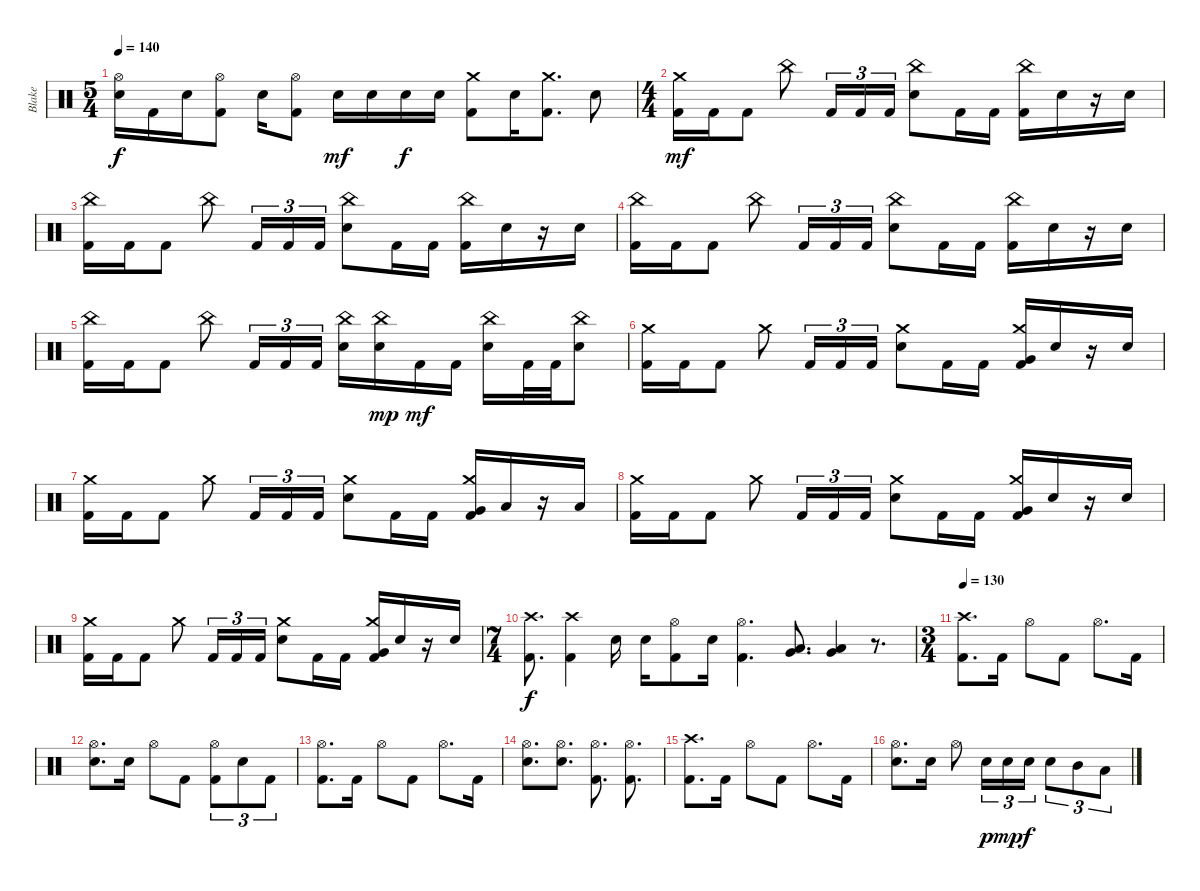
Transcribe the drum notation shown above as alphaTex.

\track ("Blake" "Blake") {instrument percussion}
\staff {score}
\articulation defaults
\ts (5 4)
\tempo 140
\clef neutral
\ks c
("Hi-Hat (open)" "Snare (hit) 2").16{dy f} "Kick (hit) 2".16 "Snare (hit) 2".16 ("Hi-Hat (open)" "Kick (hit) 2").8 "Snare (hit) 2".16 ("Hi-Hat (open)" "Kick (hit) 2").8 "Snare (hit) 2".16{dy mf} "Snare (hit) 2".16 "Snare (hit) 2".16{dy f} "Snare (hit) 2".16 ("Crash medium (hit)" "Kick (hit) 2").8 "Snare (hit) 2".16 ("Crash medium (hit)" "Kick (hit) 2").8{d} "Snare (hit) 2".8 |
\ts (4 4)
("Crash medium (hit)" "Kick (hit) 2").16{dy mf} "Kick (hit) 2".16 "Kick (hit) 2".8 "China (hit)".8 "Kick (hit) 2".16{tu (3 2)} "Kick (hit) 2".16{tu (3 2)} "Kick (hit) 2".16{tu (3 2)} ("China (hit)" "Snare (hit) 2").8 "Kick (hit) 2".16 "Kick (hit) 2".16 ("China (hit)" "Kick (hit) 2").16 "Snare (hit) 2".16 r.16 "Snare (hit) 2".16 |
("China (hit)" "Kick (hit) 2").16 "Kick (hit) 2".16 "Kick (hit) 2".8 "China (hit)".8 "Kick (hit) 2".16{tu (3 2)} "Kick (hit) 2".16{tu (3 2)} "Kick (hit) 2".16{tu (3 2)} ("China (hit)" "Snare (hit) 2").8 "Kick (hit) 2".16 "Kick (hit) 2".16 ("China (hit)" "Kick (hit) 2").16 "Snare (hit) 2".16 r.16 "Snare (hit) 2".16 |
("China (hit)" "Kick (hit) 2").16 "Kick (hit) 2".16 "Kick (hit) 2".8 "China (hit)".8 "Kick (hit) 2".16{tu (3 2)} "Kick (hit) 2".16{tu (3 2)} "Kick (hit) 2".16{tu (3 2)} ("China (hit)" "Snare (hit) 2").8 "Kick (hit) 2".16 "Kick (hit) 2".16 ("China (hit)" "Kick (hit) 2").16 "Snare (hit) 2".16 r.16 "Snare (hit) 2".16 |
("China (hit)" "Kick (hit) 2").16 "Kick (hit) 2".16 "Kick (hit) 2".8 "China (hit)".8 "Kick (hit) 2".16{tu (3 2)} "Kick (hit) 2".16{tu (3 2)} "Kick (hit) 2".16{tu (3 2)} ("China (hit)" "Snare (hit) 2").16 ("China (hit)" "Snare (hit) 2").16{dy mp} "Kick (hit) 2".16{dy mf} "Kick (hit) 2".16 ("China (hit)" "Snare (hit) 2").16 "Kick (hit) 2".32 "Kick (hit) 2".32 ("China (hit)" "Snare (hit) 2").8 |
("Crash medium (hit)" "Kick (hit) 2").16 "Kick (hit) 2".16 "Kick (hit) 2".8 "Crash medium (hit)".8 "Kick (hit) 2".16{tu (3 2)} "Kick (hit) 2".16{tu (3 2)} "Kick (hit) 2".16{tu (3 2)} ("Crash medium (hit)" "Snare (hit) 2").8 "Kick (hit) 2".16 "Kick (hit) 2".16 ("Crash medium (hit)" "Very Low Tom (hit)" "Kick (hit) 2").16 "Snare (hit) 2".16 r.16 "Snare (hit) 2".16 |
("Crash medium (hit)" "Kick (hit) 2").16 "Kick (hit) 2".16 "Kick (hit) 2".8 "Crash medium (hit)".8 "Kick (hit) 2".16{tu (3 2)} "Kick (hit) 2".16{tu (3 2)} "Kick (hit) 2".16{tu (3 2)} ("Crash medium (hit)" "Snare (hit) 2").8 "Kick (hit) 2".16 "Kick (hit) 2".16 ("Crash medium (hit)" "Very Low Tom (hit)" "Kick (hit) 2").16 "Low Tom (hit)".16 r.16 "Low Tom (hit)".16 |
("Crash medium (hit)" "Kick (hit) 2").16 "Kick (hit) 2".16 "Kick (hit) 2".8 "Crash medium (hit)".8 "Kick (hit) 2".16{tu (3 2)} "Kick (hit) 2".16{tu (3 2)} "Kick (hit) 2".16{tu (3 2)} ("Crash medium (hit)" "Snare (hit) 2").8 "Kick (hit) 2".16 "Kick (hit) 2".16 ("Crash medium (hit)" "Very Low Tom (hit)" "Kick (hit) 2").16 "Snare (hit) 2".16 r.16 "Snare (hit) 2".16 |
("Crash medium (hit)" "Kick (hit) 2").16 "Kick (hit) 2".16 "Kick (hit) 2".8 "Crash medium (hit)".8 "Kick (hit) 2".16{tu (3 2)} "Kick (hit) 2".16{tu (3 2)} "Kick (hit) 2".16{tu (3 2)} ("Crash medium (hit)" "Snare (hit) 2").8 "Kick (hit) 2".16 "Kick (hit) 2".16 ("Crash medium (hit)" "Very Low Tom (hit)" "Kick (hit) 2").16 "Snare (hit) 2".16 r.16 "Snare (hit) 2".16 |
\ts (7 4)
("Crash high (hit)" "Kick (hit) 2").8{d dy f} ("Crash high (hit)" "Kick (hit) 2").4 "Snare (hit) 2".16 "Snare (hit) 2".16 ("Hi-Hat (open)" "Kick (hit) 2").8 "Snare (hit) 2".16 ("Hi-Hat (open)" "Kick (hit) 2").4{d} ("Low Tom (hit)" "Very Low Tom (hit)").8{d} ("Low Tom (hit)" "Very Low Tom (hit)").4 r.8{d} |
\ts (3 4)
\tempo 130
("Crash high (hit)" "Kick (hit) 2").8{d} "Kick (hit) 2".16 "Hi-Hat (open)".8 "Kick (hit) 2".8 "Hi-Hat (open)".8{d} "Kick (hit) 2".16 |
("Hi-Hat (open)" "Snare (hit) 2").8{d} "Snare (hit) 2".16 "Hi-Hat (open)".8 "Kick (hit) 2".8 ("Hi-Hat (open)" "Kick (hit) 2").8{tu (3 2)} "Snare (hit) 2".8{tu (3 2)} "Kick (hit) 2".8{tu (3 2)} |
("Hi-Hat (open)" "Kick (hit) 2").8{d} "Kick (hit) 2".16 "Hi-Hat (open)".8 "Kick (hit) 2".8 "Hi-Hat (open)".8{d} "Kick (hit) 2".16 |
("Hi-Hat (open)" "Snare (hit) 2").8{d} ("Hi-Hat (open)" "Snare (hit) 2").8{d} ("Hi-Hat (open)" "Kick (hit) 2").8{d} ("Hi-Hat (open)" "Kick (hit) 2").8{d} |
("Crash high (hit)" "Kick (hit) 2").8{d} "Kick (hit) 2".16 "Hi-Hat (open)".8 "Kick (hit) 2".8 "Hi-Hat (open)".8{d} "Kick (hit) 2".16 |
("Hi-Hat (open)" "Snare (hit) 2").8{d} "Snare (hit) 2".16 "Hi-Hat (open)".8 "Snare (hit) 2".16{tu (3 2) dy p} "Snare (hit) 2".16{tu (3 2) dy mp} "Snare (hit) 2".16{tu (3 2) dy f} "Snare (hit) 2".8{tu (3 2)} "Mid Tom (hit)".8{tu (3 2)} "Low Tom (hit)".8{tu (3 2)}
